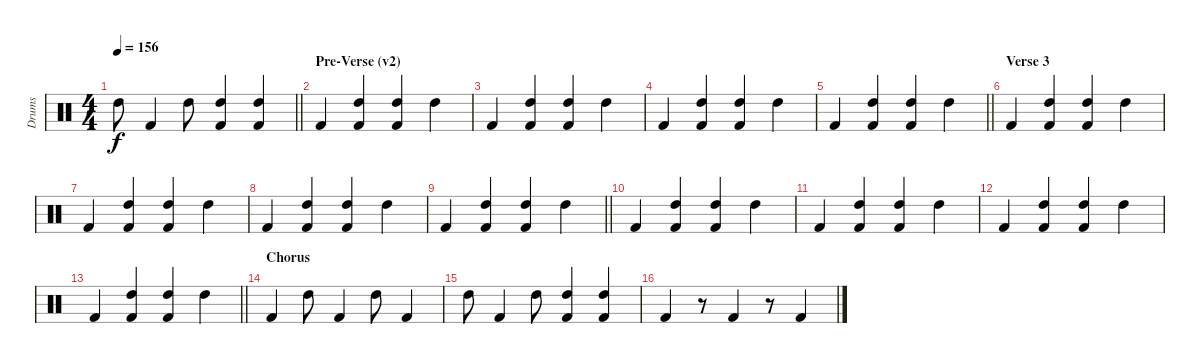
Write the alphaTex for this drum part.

\track ("Drums" "Drums") {instrument percussion}
\staff
\articulation defaults
\ts (4 4)
\tempo 156
\clef neutral
\barLineRight lightlight
\ks c "High Tom (hit)".8{dy f} "Kick (hit) 2".4 "High Tom (hit)".8
("High Tom (hit)" "Kick (hit) 2").4 ("High Tom (hit)" "Kick (hit) 2").4 |
\section ("" "Pre-Verse (v2)")
"Kick (hit) 2".4 ("High Tom (hit)" "Kick (hit) 2").4 ("High Tom (hit)" "Kick (hit) 2").4 "High Tom (hit)".4 |
"Kick (hit) 2".4 ("High Tom (hit)" "Kick (hit) 2").4 ("High Tom (hit)" "Kick (hit) 2").4 "High Tom (hit)".4 |
"Kick (hit) 2".4 ("High Tom (hit)" "Kick (hit) 2").4 ("High Tom (hit)" "Kick (hit) 2").4 "High Tom (hit)".4 |
\barLineRight lightlight "Kick (hit) 2".4
("High Tom (hit)" "Kick (hit) 2").4 ("High Tom (hit)" "Kick (hit) 2").4 "High Tom (hit)".4 |
\section ("" "Verse 3")
"Kick (hit) 2".4 ("High Tom (hit)" "Kick (hit) 2").4 ("High Tom (hit)" "Kick (hit) 2").4 "High Tom (hit)".4 |
"Kick (hit) 2".4 ("High Tom (hit)" "Kick (hit) 2").4 ("High Tom (hit)" "Kick (hit) 2").4 "High Tom (hit)".4 |
"Kick (hit) 2".4 ("High Tom (hit)" "Kick (hit) 2").4 ("High Tom (hit)" "Kick (hit) 2").4 "High Tom (hit)".4 |
\barLineRight lightlight "Kick (hit) 2".4
("High Tom (hit)" "Kick (hit) 2").4 ("High Tom (hit)" "Kick (hit) 2").4 "High Tom (hit)".4 |
"Kick (hit) 2".4 ("High Tom (hit)" "Kick (hit) 2").4 ("High Tom (hit)" "Kick (hit) 2").4 "High Tom (hit)".4 |
"Kick (hit) 2".4 ("High Tom (hit)" "Kick (hit) 2").4 ("High Tom (hit)" "Kick (hit) 2").4 "High Tom (hit)".4 |
"Kick (hit) 2".4 ("High Tom (hit)" "Kick (hit) 2").4 ("High Tom (hit)" "Kick (hit) 2").4 "High Tom (hit)".4 |
\barLineRight lightlight "Kick (hit) 2".4
("High Tom (hit)" "Kick (hit) 2").4 ("High Tom (hit)" "Kick (hit) 2").4 "High Tom (hit)".4 |
\section ("" "Chorus")
"Kick (hit) 2".4 "High Tom (hit)".8 "Kick (hit) 2".4 "High Tom (hit)".8 "Kick (hit) 2".4 |
"High Tom (hit)".8 "Kick (hit) 2".4 "High Tom (hit)".8 ("High Tom (hit)" "Kick (hit) 2").4 ("High Tom (hit)" "Kick (hit) 2").4 |
"Kick (hit) 2".4 r.8 "Kick (hit) 2".4 r.8 "Kick (hit) 2".4
